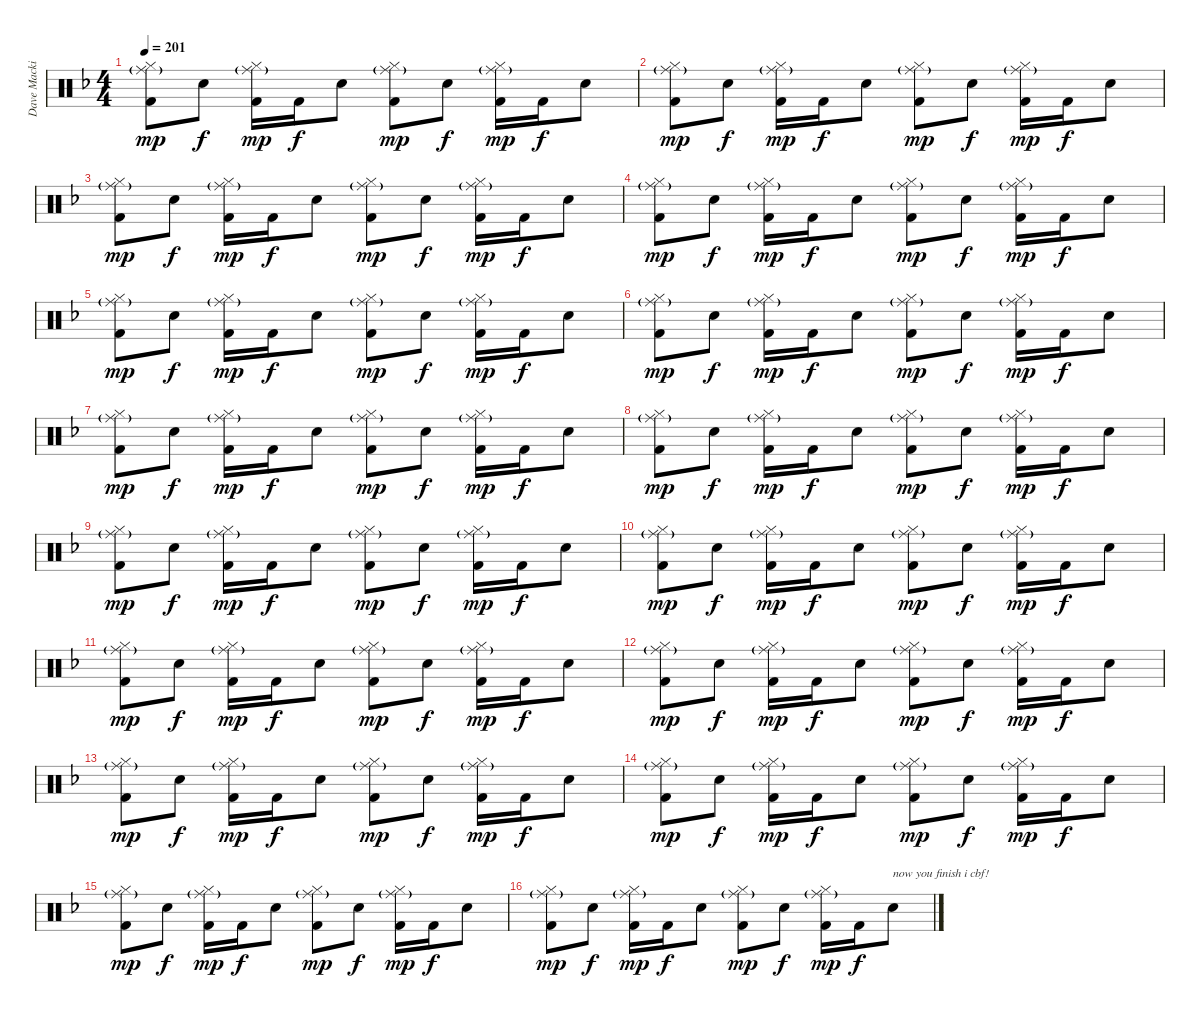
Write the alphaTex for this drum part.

\track ("Dave Mackintosh " "Dave Macki") {instrument percussion}
\staff {score}
\articulation defaults
\ts (4 4)
\tempo 201
\clef neutral
\ks dminor
("Hi-Hat (closed)" "Ride (middle)"{g} "Kick (hit) 2").8{dy mp} "Snare (hit) 2".8{dy f} ("Hi-Hat (closed)" "Ride (middle)"{g} "Kick (hit) 2").16{dy mp} "Kick (hit) 2".16{dy f} "Snare (hit) 2".8 ("Hi-Hat (closed)" "Ride (middle)"{g} "Kick (hit) 2").8{dy mp} "Snare (hit) 2".8{dy f} ("Hi-Hat (closed)" "Ride (middle)"{g} "Kick (hit) 2").16{dy mp} "Kick (hit) 2".16{dy f} "Snare (hit) 2".8 |
("Hi-Hat (closed)" "Ride (middle)"{g} "Kick (hit) 2").8{dy mp} "Snare (hit) 2".8{dy f} ("Hi-Hat (closed)" "Ride (middle)"{g} "Kick (hit) 2").16{dy mp} "Kick (hit) 2".16{dy f} "Snare (hit) 2".8 ("Hi-Hat (closed)" "Ride (middle)"{g} "Kick (hit) 2").8{dy mp} "Snare (hit) 2".8{dy f} ("Hi-Hat (closed)" "Ride (middle)"{g} "Kick (hit) 2").16{dy mp} "Kick (hit) 2".16{dy f} "Snare (hit) 2".8 |
("Hi-Hat (closed)" "Ride (middle)"{g} "Kick (hit) 2").8{dy mp} "Snare (hit) 2".8{dy f} ("Hi-Hat (closed)" "Ride (middle)"{g} "Kick (hit) 2").16{dy mp} "Kick (hit) 2".16{dy f} "Snare (hit) 2".8 ("Hi-Hat (closed)" "Ride (middle)"{g} "Kick (hit) 2").8{dy mp} "Snare (hit) 2".8{dy f} ("Hi-Hat (closed)" "Ride (middle)"{g} "Kick (hit) 2").16{dy mp} "Kick (hit) 2".16{dy f} "Snare (hit) 2".8 |
("Hi-Hat (closed)" "Ride (middle)"{g} "Kick (hit) 2").8{dy mp} "Snare (hit) 2".8{dy f} ("Hi-Hat (closed)" "Ride (middle)"{g} "Kick (hit) 2").16{dy mp} "Kick (hit) 2".16{dy f} "Snare (hit) 2".8 ("Hi-Hat (closed)" "Ride (middle)"{g} "Kick (hit) 2").8{dy mp} "Snare (hit) 2".8{dy f} ("Hi-Hat (closed)" "Ride (middle)"{g} "Kick (hit) 2").16{dy mp} "Kick (hit) 2".16{dy f} "Snare (hit) 2".8 |
("Hi-Hat (closed)" "Ride (middle)"{g} "Kick (hit) 2").8{dy mp} "Snare (hit) 2".8{dy f} ("Hi-Hat (closed)" "Ride (middle)"{g} "Kick (hit) 2").16{dy mp} "Kick (hit) 2".16{dy f} "Snare (hit) 2".8 ("Hi-Hat (closed)" "Ride (middle)"{g} "Kick (hit) 2").8{dy mp} "Snare (hit) 2".8{dy f} ("Hi-Hat (closed)" "Ride (middle)"{g} "Kick (hit) 2").16{dy mp} "Kick (hit) 2".16{dy f} "Snare (hit) 2".8 |
("Hi-Hat (closed)" "Ride (middle)"{g} "Kick (hit) 2").8{dy mp} "Snare (hit) 2".8{dy f} ("Hi-Hat (closed)" "Ride (middle)"{g} "Kick (hit) 2").16{dy mp} "Kick (hit) 2".16{dy f} "Snare (hit) 2".8 ("Hi-Hat (closed)" "Ride (middle)"{g} "Kick (hit) 2").8{dy mp} "Snare (hit) 2".8{dy f} ("Hi-Hat (closed)" "Ride (middle)"{g} "Kick (hit) 2").16{dy mp} "Kick (hit) 2".16{dy f} "Snare (hit) 2".8 |
("Hi-Hat (closed)" "Ride (middle)"{g} "Kick (hit) 2").8{dy mp} "Snare (hit) 2".8{dy f} ("Hi-Hat (closed)" "Ride (middle)"{g} "Kick (hit) 2").16{dy mp} "Kick (hit) 2".16{dy f} "Snare (hit) 2".8 ("Hi-Hat (closed)" "Ride (middle)"{g} "Kick (hit) 2").8{dy mp} "Snare (hit) 2".8{dy f} ("Hi-Hat (closed)" "Ride (middle)"{g} "Kick (hit) 2").16{dy mp} "Kick (hit) 2".16{dy f} "Snare (hit) 2".8 |
("Hi-Hat (closed)" "Ride (middle)"{g} "Kick (hit) 2").8{dy mp} "Snare (hit) 2".8{dy f} ("Hi-Hat (closed)" "Ride (middle)"{g} "Kick (hit) 2").16{dy mp} "Kick (hit) 2".16{dy f} "Snare (hit) 2".8 ("Hi-Hat (closed)" "Ride (middle)"{g} "Kick (hit) 2").8{dy mp} "Snare (hit) 2".8{dy f} ("Hi-Hat (closed)" "Ride (middle)"{g} "Kick (hit) 2").16{dy mp} "Kick (hit) 2".16{dy f} "Snare (hit) 2".8 |
("Hi-Hat (closed)" "Ride (middle)"{g} "Kick (hit) 2").8{dy mp} "Snare (hit) 2".8{dy f} ("Hi-Hat (closed)" "Ride (middle)"{g} "Kick (hit) 2").16{dy mp} "Kick (hit) 2".16{dy f} "Snare (hit) 2".8 ("Hi-Hat (closed)" "Ride (middle)"{g} "Kick (hit) 2").8{dy mp} "Snare (hit) 2".8{dy f} ("Hi-Hat (closed)" "Ride (middle)"{g} "Kick (hit) 2").16{dy mp} "Kick (hit) 2".16{dy f} "Snare (hit) 2".8 |
("Hi-Hat (closed)" "Ride (middle)"{g} "Kick (hit) 2").8{dy mp} "Snare (hit) 2".8{dy f} ("Hi-Hat (closed)" "Ride (middle)"{g} "Kick (hit) 2").16{dy mp} "Kick (hit) 2".16{dy f} "Snare (hit) 2".8 ("Hi-Hat (closed)" "Ride (middle)"{g} "Kick (hit) 2").8{dy mp} "Snare (hit) 2".8{dy f} ("Hi-Hat (closed)" "Ride (middle)"{g} "Kick (hit) 2").16{dy mp} "Kick (hit) 2".16{dy f} "Snare (hit) 2".8 |
("Hi-Hat (closed)" "Ride (middle)"{g} "Kick (hit) 2").8{dy mp} "Snare (hit) 2".8{dy f} ("Hi-Hat (closed)" "Ride (middle)"{g} "Kick (hit) 2").16{dy mp} "Kick (hit) 2".16{dy f} "Snare (hit) 2".8 ("Hi-Hat (closed)" "Ride (middle)"{g} "Kick (hit) 2").8{dy mp} "Snare (hit) 2".8{dy f} ("Hi-Hat (closed)" "Ride (middle)"{g} "Kick (hit) 2").16{dy mp} "Kick (hit) 2".16{dy f} "Snare (hit) 2".8 |
("Hi-Hat (closed)" "Ride (middle)"{g} "Kick (hit) 2").8{dy mp} "Snare (hit) 2".8{dy f} ("Hi-Hat (closed)" "Ride (middle)"{g} "Kick (hit) 2").16{dy mp} "Kick (hit) 2".16{dy f} "Snare (hit) 2".8 ("Hi-Hat (closed)" "Ride (middle)"{g} "Kick (hit) 2").8{dy mp} "Snare (hit) 2".8{dy f} ("Hi-Hat (closed)" "Ride (middle)"{g} "Kick (hit) 2").16{dy mp} "Kick (hit) 2".16{dy f} "Snare (hit) 2".8 |
("Hi-Hat (closed)" "Ride (middle)"{g} "Kick (hit) 2").8{dy mp} "Snare (hit) 2".8{dy f} ("Hi-Hat (closed)" "Ride (middle)"{g} "Kick (hit) 2").16{dy mp} "Kick (hit) 2".16{dy f} "Snare (hit) 2".8 ("Hi-Hat (closed)" "Ride (middle)"{g} "Kick (hit) 2").8{dy mp} "Snare (hit) 2".8{dy f} ("Hi-Hat (closed)" "Ride (middle)"{g} "Kick (hit) 2").16{dy mp} "Kick (hit) 2".16{dy f} "Snare (hit) 2".8 |
("Hi-Hat (closed)" "Ride (middle)"{g} "Kick (hit) 2").8{dy mp} "Snare (hit) 2".8{dy f} ("Hi-Hat (closed)" "Ride (middle)"{g} "Kick (hit) 2").16{dy mp} "Kick (hit) 2".16{dy f} "Snare (hit) 2".8 ("Hi-Hat (closed)" "Ride (middle)"{g} "Kick (hit) 2").8{dy mp} "Snare (hit) 2".8{dy f} ("Hi-Hat (closed)" "Ride (middle)"{g} "Kick (hit) 2").16{dy mp} "Kick (hit) 2".16{dy f} "Snare (hit) 2".8 |
("Hi-Hat (closed)" "Ride (middle)"{g} "Kick (hit) 2").8{dy mp} "Snare (hit) 2".8{dy f} ("Hi-Hat (closed)" "Ride (middle)"{g} "Kick (hit) 2").16{dy mp} "Kick (hit) 2".16{dy f} "Snare (hit) 2".8 ("Hi-Hat (closed)" "Ride (middle)"{g} "Kick (hit) 2").8{dy mp} "Snare (hit) 2".8{dy f} ("Hi-Hat (closed)" "Ride (middle)"{g} "Kick (hit) 2").16{dy mp} "Kick (hit) 2".16{dy f} "Snare (hit) 2".8 |
("Hi-Hat (closed)" "Ride (middle)"{g} "Kick (hit) 2").8{dy mp} "Snare (hit) 2".8{dy f} ("Hi-Hat (closed)" "Ride (middle)"{g} "Kick (hit) 2").16{dy mp} "Kick (hit) 2".16{dy f} "Snare (hit) 2".8 ("Hi-Hat (closed)" "Ride (middle)"{g} "Kick (hit) 2").8{dy mp} "Snare (hit) 2".8{dy f} ("Hi-Hat (closed)" "Ride (middle)"{g} "Kick (hit) 2").16{dy mp} "Kick (hit) 2".16{dy f} "Snare (hit) 2".8{txt "now you finish i cbf!"}
